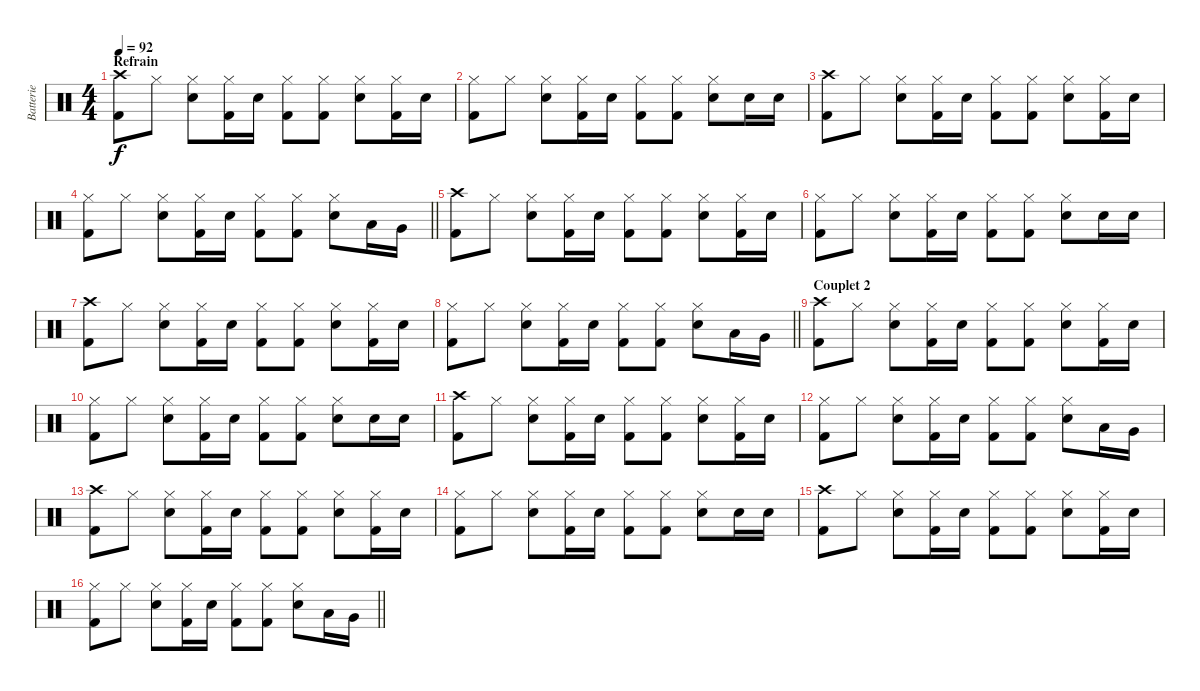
\track ("Batterie" "Batterie") {instrument percussion}
\staff {score}
\articulation defaults
\ts (4 4)
\section ("" "Refrain")
\tempo 92
\clef neutral
\ks c
("Crash high (hit)" "Kick (hit) 2").8{dy f} "Hi-Hat (closed)".8 ("Hi-Hat (closed)" "Electric Snare (hit)").8 ("Hi-Hat (closed)" "Kick (hit) 2").16 "Electric Snare (hit)".16 ("Hi-Hat (closed)" "Kick (hit) 2").8 ("Hi-Hat (closed)" "Kick (hit) 2").8 ("Hi-Hat (closed)" "Electric Snare (hit)").8 ("Hi-Hat (closed)" "Kick (hit) 2").16 "Electric Snare (hit)".16 |
("Hi-Hat (closed)" "Kick (hit) 2").8 "Hi-Hat (closed)".8 ("Hi-Hat (closed)" "Electric Snare (hit)").8 ("Hi-Hat (closed)" "Kick (hit) 2").16 "Electric Snare (hit)".16 ("Hi-Hat (closed)" "Kick (hit) 2").8 ("Hi-Hat (closed)" "Kick (hit) 2").8 ("Hi-Hat (closed)" "Electric Snare (hit)").8 "Electric Snare (hit)".16 "Electric Snare (hit)".16 |
("Crash high (hit)" "Kick (hit) 2").8 "Hi-Hat (closed)".8 ("Hi-Hat (closed)" "Electric Snare (hit)").8 ("Hi-Hat (closed)" "Kick (hit) 2").16 "Electric Snare (hit)".16 ("Hi-Hat (closed)" "Kick (hit) 2").8 ("Hi-Hat (closed)" "Kick (hit) 2").8 ("Hi-Hat (closed)" "Electric Snare (hit)").8 ("Hi-Hat (closed)" "Kick (hit) 2").16 "Electric Snare (hit)".16 |
\barLineRight lightlight
("Hi-Hat (closed)" "Kick (hit) 2").8 "Hi-Hat (closed)".8 ("Hi-Hat (closed)" "Electric Snare (hit)").8 ("Hi-Hat (closed)" "Kick (hit) 2").16 "Electric Snare (hit)".16 ("Hi-Hat (closed)" "Kick (hit) 2").8 ("Hi-Hat (closed)" "Kick (hit) 2").8 ("Hi-Hat (closed)" "Electric Snare (hit)").8 "Low Tom (hit)".16 "Very Low Tom (hit)".16 |
("Crash high (hit)" "Kick (hit) 2").8 "Hi-Hat (closed)".8 ("Hi-Hat (closed)" "Electric Snare (hit)").8 ("Hi-Hat (closed)" "Kick (hit) 2").16 "Electric Snare (hit)".16 ("Hi-Hat (closed)" "Kick (hit) 2").8 ("Hi-Hat (closed)" "Kick (hit) 2").8 ("Hi-Hat (closed)" "Electric Snare (hit)").8 ("Hi-Hat (closed)" "Kick (hit) 2").16 "Electric Snare (hit)".16 |
("Hi-Hat (closed)" "Kick (hit) 2").8 "Hi-Hat (closed)".8 ("Hi-Hat (closed)" "Electric Snare (hit)").8 ("Hi-Hat (closed)" "Kick (hit) 2").16 "Electric Snare (hit)".16 ("Hi-Hat (closed)" "Kick (hit) 2").8 ("Hi-Hat (closed)" "Kick (hit) 2").8 ("Hi-Hat (closed)" "Electric Snare (hit)").8 "Electric Snare (hit)".16 "Electric Snare (hit)".16 |
("Crash high (hit)" "Kick (hit) 2").8 "Hi-Hat (closed)".8 ("Hi-Hat (closed)" "Electric Snare (hit)").8 ("Hi-Hat (closed)" "Kick (hit) 2").16 "Electric Snare (hit)".16 ("Hi-Hat (closed)" "Kick (hit) 2").8 ("Hi-Hat (closed)" "Kick (hit) 2").8 ("Hi-Hat (closed)" "Electric Snare (hit)").8 ("Hi-Hat (closed)" "Kick (hit) 2").16 "Electric Snare (hit)".16 |
\barLineRight lightlight
("Hi-Hat (closed)" "Kick (hit) 2").8 "Hi-Hat (closed)".8 ("Hi-Hat (closed)" "Electric Snare (hit)").8 ("Hi-Hat (closed)" "Kick (hit) 2").16 "Electric Snare (hit)".16 ("Hi-Hat (closed)" "Kick (hit) 2").8 ("Hi-Hat (closed)" "Kick (hit) 2").8 ("Hi-Hat (closed)" "Electric Snare (hit)").8 "Low Tom (hit)".16 "Very Low Tom (hit)".16 |
\section ("" "Couplet 2")
("Crash high (hit)" "Kick (hit) 2").8 "Hi-Hat (closed)".8 ("Hi-Hat (closed)" "Electric Snare (hit)").8 ("Hi-Hat (closed)" "Kick (hit) 2").16 "Electric Snare (hit)".16 ("Hi-Hat (closed)" "Kick (hit) 2").8 ("Hi-Hat (closed)" "Kick (hit) 2").8 ("Hi-Hat (closed)" "Electric Snare (hit)").8 ("Hi-Hat (closed)" "Kick (hit) 2").16 "Electric Snare (hit)".16 |
("Hi-Hat (closed)" "Kick (hit) 2").8 "Hi-Hat (closed)".8 ("Hi-Hat (closed)" "Electric Snare (hit)").8 ("Hi-Hat (closed)" "Kick (hit) 2").16 "Electric Snare (hit)".16 ("Hi-Hat (closed)" "Kick (hit) 2").8 ("Hi-Hat (closed)" "Kick (hit) 2").8 ("Hi-Hat (closed)" "Electric Snare (hit)").8 "Electric Snare (hit)".16 "Electric Snare (hit)".16 |
("Crash high (hit)" "Kick (hit) 2").8 "Hi-Hat (closed)".8 ("Hi-Hat (closed)" "Electric Snare (hit)").8 ("Hi-Hat (closed)" "Kick (hit) 2").16 "Electric Snare (hit)".16 ("Hi-Hat (closed)" "Kick (hit) 2").8 ("Hi-Hat (closed)" "Kick (hit) 2").8 ("Hi-Hat (closed)" "Electric Snare (hit)").8 ("Hi-Hat (closed)" "Kick (hit) 2").16 "Electric Snare (hit)".16 |
("Hi-Hat (closed)" "Kick (hit) 2").8 "Hi-Hat (closed)".8 ("Hi-Hat (closed)" "Electric Snare (hit)").8 ("Hi-Hat (closed)" "Kick (hit) 2").16 "Electric Snare (hit)".16 ("Hi-Hat (closed)" "Kick (hit) 2").8 ("Hi-Hat (closed)" "Kick (hit) 2").8 ("Hi-Hat (closed)" "Electric Snare (hit)").8 "Low Tom (hit)".16 "Very Low Tom (hit)".16 |
("Crash high (hit)" "Kick (hit) 2").8 "Hi-Hat (closed)".8 ("Hi-Hat (closed)" "Electric Snare (hit)").8 ("Hi-Hat (closed)" "Kick (hit) 2").16 "Electric Snare (hit)".16 ("Hi-Hat (closed)" "Kick (hit) 2").8 ("Hi-Hat (closed)" "Kick (hit) 2").8 ("Hi-Hat (closed)" "Electric Snare (hit)").8 ("Hi-Hat (closed)" "Kick (hit) 2").16 "Electric Snare (hit)".16 |
("Hi-Hat (closed)" "Kick (hit) 2").8 "Hi-Hat (closed)".8 ("Hi-Hat (closed)" "Electric Snare (hit)").8 ("Hi-Hat (closed)" "Kick (hit) 2").16 "Electric Snare (hit)".16 ("Hi-Hat (closed)" "Kick (hit) 2").8 ("Hi-Hat (closed)" "Kick (hit) 2").8 ("Hi-Hat (closed)" "Electric Snare (hit)").8 "Electric Snare (hit)".16 "Electric Snare (hit)".16 |
("Crash high (hit)" "Kick (hit) 2").8 "Hi-Hat (closed)".8 ("Hi-Hat (closed)" "Electric Snare (hit)").8 ("Hi-Hat (closed)" "Kick (hit) 2").16 "Electric Snare (hit)".16 ("Hi-Hat (closed)" "Kick (hit) 2").8 ("Hi-Hat (closed)" "Kick (hit) 2").8 ("Hi-Hat (closed)" "Electric Snare (hit)").8 ("Hi-Hat (closed)" "Kick (hit) 2").16 "Electric Snare (hit)".16 |
\barLineRight lightlight
("Hi-Hat (closed)" "Kick (hit) 2").8 "Hi-Hat (closed)".8 ("Hi-Hat (closed)" "Electric Snare (hit)").8 ("Hi-Hat (closed)" "Kick (hit) 2").16 "Electric Snare (hit)".16 ("Hi-Hat (closed)" "Kick (hit) 2").8 ("Hi-Hat (closed)" "Kick (hit) 2").8 ("Hi-Hat (closed)" "Electric Snare (hit)").8 "Low Tom (hit)".16 "Very Low Tom (hit)".16
